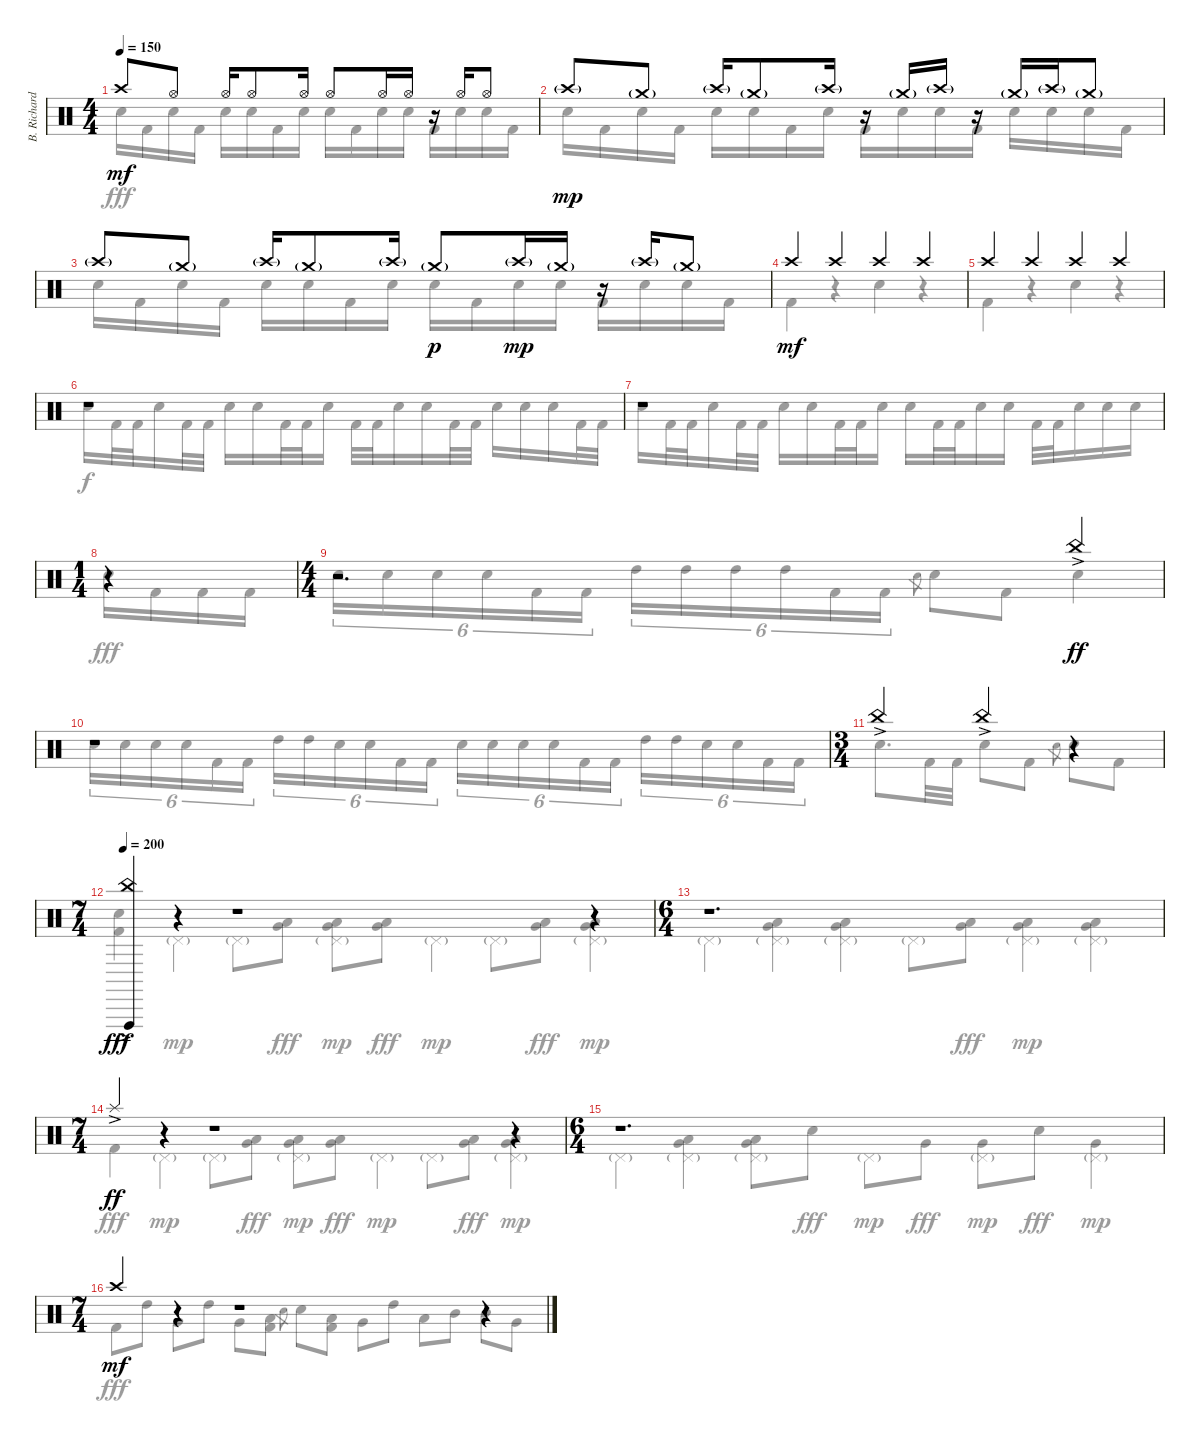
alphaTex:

\track ("B. Richardson Drums" "B. Richard") {instrument percussion}
\staff {score}
\articulation defaults
\voice
\ts (4 4)
\tempo 150
\clef neutral
\ks c "Crash high (hit)".8{dy mf} "Hi-Hat (open)".8 "Hi-Hat (open)".16 "Hi-Hat (open)".8 "Hi-Hat (open)".16 "Hi-Hat (open)".8 "Hi-Hat (open)".16 "Hi-Hat (open)".16
r.16 "Hi-Hat (open)".16 "Hi-Hat (open)".8 |
"Crash high (hit)"{g}.8{dy mp} "Crash medium (hit)"{g}.8 "Crash high (hit)"{g}.16 "Crash medium (hit)"{g}.8 "Crash high (hit)"{g}.16 r.16 "Crash medium (hit)"{g}.16 "Crash high (hit)"{g}.16 r.16 "Crash medium (hit)"{g}.16 "Crash high (hit)"{g}.16 "Crash medium (hit)"{g}.8 |
"Crash high (hit)"{g}.8 "Crash medium (hit)"{g}.8 "Crash high (hit)"{g}.16 "Crash medium (hit)"{g}.8 "Crash high (hit)"{g}.16 "Crash medium (hit)"{g}.8{dy p} "Crash high (hit)"{g}.16{dy mp} "Crash medium (hit)"{g}.16 r.16 "Crash high (hit)"{g}.16 "Crash medium (hit)"{g}.8 |
"Crash high (hit)".4{dy mf} "Crash high (hit)".4 "Crash high (hit)".4 "Crash high (hit)".4 |
"Crash high (hit)".4 "Crash high (hit)".4 "Crash high (hit)".4 "Crash high (hit)".4 |
r.1 |
r.1 |
\ts (1 4)
r.4 |
\ts (4 4)
r.2{d} "China (hit)"{ac}.4{dy ff} |
r.1 |
\ts (3 4)
"China (hit)"{ac}.4 "China (hit)"{ac}.4 r.4 |
\ts (7 4)
\tempo 200
("China (hit)"{ac} "Vibraslap (hit)").4{dy fff} r.4 r.1 r.4 |
\ts (6 4)
r.1{d} |
\ts (7 4)
"Splash (hit)"{ac}.4{dy ff} r.4 r.1 r.4 |
\ts (6 4)
r.1{d} |
\ts (7 4)
"Crash high (hit)".4{dy mf} r.4 r.1 r.4
\voice
\clef neutral
\ottava regular
\simile none
\ks c "Electric Snare (hit)".16{dy fff} "Kick (hit) 2".16 "Electric Snare (hit)".16 "Kick (hit) 2".16 "Electric Snare (hit)".16 "Electric Snare (hit)".16 "Kick (hit) 2".16 "Electric Snare (hit)".16 "Electric Snare (hit)".16 "Kick (hit) 2".16 "Electric Snare (hit)".16 "Electric Snare (hit)".16 "Kick (hit) 2".16 "Electric Snare (hit)".16 "Electric Snare (hit)".16 "Kick (hit) 2".16
|
"Electric Snare (hit)".16 "Kick (hit) 2".16 "Electric Snare (hit)".16 "Kick (hit) 2".16 "Electric Snare (hit)".16 "Electric Snare (hit)".16 "Kick (hit) 2".16 "Electric Snare (hit)".16 "Kick (hit) 2".16 "Electric Snare (hit)".16 "Electric Snare (hit)".16 "Kick (hit) 2".16 "Electric Snare (hit)".16 "Electric Snare (hit)".16 "Electric Snare (hit)".16 "Kick (hit) 2".16 |
"Electric Snare (hit)".16 "Kick (hit) 2".16 "Electric Snare (hit)".16 "Kick (hit) 2".16 "Electric Snare (hit)".16 "Electric Snare (hit)".16 "Kick (hit) 2".16 "Electric Snare (hit)".16 "Electric Snare (hit)".16 "Kick (hit) 2".16 "Electric Snare (hit)".16 "Electric Snare (hit)".16 "Kick (hit) 2".16 "Electric Snare (hit)".16 "Electric Snare (hit)".16 "Kick (hit) 2".16 |
"Kick (hit) 2".4 r.4 "Electric Snare (hit)".4 r.4 |
"Kick (hit) 2".4 r.4 "Electric Snare (hit)".4 r.4 |
"Electric Snare (hit)".16{dy f} "Kick (hit) 2".32 "Kick (hit) 2".32 "Electric Snare (hit)".16 "Kick (hit) 2".32 "Kick (hit) 2".32 "Electric Snare (hit)".16 "Electric Snare (hit)".16 "Kick (hit) 2".32 "Kick (hit) 2".32 "Electric Snare (hit)".16 "Kick (hit) 2".32 "Kick (hit) 2".32 "Electric Snare (hit)".16 "Electric Snare (hit)".16 "Kick (hit) 2".32 "Kick (hit) 2".32 "Electric Snare (hit)".16 "Electric Snare (hit)".16 "Electric Snare (hit)".16 "Kick (hit) 2".32 "Kick (hit) 2".32 |
"Electric Snare (hit)".16 "Kick (hit) 2".32 "Kick (hit) 2".32 "Electric Snare (hit)".16 "Kick (hit) 2".32 "Kick (hit) 2".32 "Electric Snare (hit)".16 "Electric Snare (hit)".16 "Kick (hit) 2".32 "Kick (hit) 2".32 "Electric Snare (hit)".16 "Electric Snare (hit)".16 "Kick (hit) 2".32 "Kick (hit) 2".32 "Electric Snare (hit)".16 "Electric Snare (hit)".16 "Kick (hit) 2".32 "Kick (hit) 2".32 "Electric Snare (hit)".16 "Electric Snare (hit)".16 "Electric Snare (hit)".16 |
"Electric Snare (hit)".16{dy fff} "Kick (hit) 2".16 "Kick (hit) 2".16 "Kick (hit) 2".16 |
"Electric Snare (hit)".16{tu (6 4)} "Electric Snare (hit)".16{tu (6 4)} "Electric Snare (hit)".16{tu (6 4)} "Electric Snare (hit)".16{tu (6 4)} "Kick (hit) 2".16{tu (6 4)} "Kick (hit) 2".16{tu (6 4)} "High Tom (hit)".16{tu (6 4)} "High Tom (hit)".16{tu (6 4)} "High Tom (hit)".16{tu (6 4)} "High Tom (hit)".16{tu (6 4)} "Kick (hit) 2".16{tu (6 4)} "Kick (hit) 2".16{tu (6 4)} "Electric Snare (hit)".8{gr} "Electric Snare (hit)".8 "Kick (hit) 2".8 "Electric Snare (hit)".4 |
"Electric Snare (hit)".16{tu (6 4)} "Electric Snare (hit)".16{tu (6 4)} "Electric Snare (hit)".16{tu (6 4)} "Electric Snare (hit)".16{tu (6 4)} "Kick (hit) 2".16{tu (6 4)} "Kick (hit) 2".16{tu (6 4)} "High Tom (hit)".16{tu (6 4)} "High Tom (hit)".16{tu (6 4)} "Electric Snare (hit)".16{tu (6 4)} "Electric Snare (hit)".16{tu (6 4)} "Kick (hit) 2".16{tu (6 4)} "Kick (hit) 2".16{tu (6 4)} "Electric Snare (hit)".16{tu (6 4)} "Electric Snare (hit)".16{tu (6 4)} "Electric Snare (hit)".16{tu (6 4)} "Electric Snare (hit)".16{tu (6 4)} "Kick (hit) 2".16{tu (6 4)} "Kick (hit) 2".16{tu (6 4)} "High Tom (hit)".16{tu (6 4)} "High Tom (hit)".16{tu (6 4)} "Electric Snare (hit)".16{tu (6 4)} "Electric Snare (hit)".16{tu (6 4)} "Kick (hit) 2".16{tu (6 4)} "Kick (hit) 2".16{tu (6 4)} |
"Electric Snare (hit)".8{d} "Kick (hit) 2".32 "Kick (hit) 2".32 "Electric Snare (hit)".8 "Kick (hit) 2".8 "Electric Snare (hit)".8{gr} "Electric Snare (hit)".8 "Kick (hit) 2".8 |
("Electric Snare (hit)" "Kick (hit) 2").4 "Pedal Hi-Hat (hit)"{g}.4{dy mp} "Pedal Hi-Hat (hit)"{g}.8 ("Low Tom (hit)" "Very Low Tom (hit)").8{dy fff} ("Low Tom (hit)" "Very Low Tom (hit)" "Pedal Hi-Hat (hit)"{g}).8{dy mp} ("Low Tom (hit)" "Very Low Tom (hit)").8{dy fff} "Pedal Hi-Hat (hit)"{g}.4{dy mp} "Pedal Hi-Hat (hit)"{g}.8 ("Low Tom (hit)" "Very Low Tom (hit)").8{dy fff} ("Low Tom (hit)" "Very Low Tom (hit)" "Pedal Hi-Hat (hit)"{g}).4{dy mp} |
"Pedal Hi-Hat (hit)"{g}.4 ("Low Tom (hit)" "Very Low Tom (hit)" "Pedal Hi-Hat (hit)"{g}).4 ("Low Tom (hit)" "Very Low Tom (hit)" "Pedal Hi-Hat (hit)"{g}).4 "Pedal Hi-Hat (hit)"{g}.8 ("Low Tom (hit)" "Very Low Tom (hit)").8{dy fff} ("Low Tom (hit)" "Very Low Tom (hit)" "Pedal Hi-Hat (hit)"{g}).4{dy mp} ("Low Tom (hit)" "Very Low Tom (hit)" "Pedal Hi-Hat (hit)"{g}).4 |
"Kick (hit) 2".4{dy fff} "Pedal Hi-Hat (hit)"{g}.4{dy mp} "Pedal Hi-Hat (hit)"{g}.8 ("Low Tom (hit)" "Very Low Tom (hit)").8{dy fff} ("Low Tom (hit)" "Very Low Tom (hit)" "Pedal Hi-Hat (hit)"{g}).8{dy mp} ("Low Tom (hit)" "Very Low Tom (hit)").8{dy fff} "Pedal Hi-Hat (hit)"{g}.4{dy mp} "Pedal Hi-Hat (hit)"{g}.8 ("Low Tom (hit)" "Very Low Tom (hit)").8{dy fff} ("Low Tom (hit)" "Very Low Tom (hit)" "Pedal Hi-Hat (hit)"{g}).4{dy mp} |
"Pedal Hi-Hat (hit)"{g}.4 ("Low Tom (hit)" "Very Low Tom (hit)" "Pedal Hi-Hat (hit)"{g}).4 ("Low Tom (hit)" "Very Low Tom (hit)" "Pedal Hi-Hat (hit)"{g}).8 "Electric Snare (hit)".8{dy fff} "Pedal Hi-Hat (hit)"{g}.8{dy mp} "Very Low Tom (hit)".8{dy fff} ("Very Low Tom (hit)" "Pedal Hi-Hat (hit)"{g}).8{dy mp} "Electric Snare (hit)".8{dy fff} ("Very Low Tom (hit)" "Pedal Hi-Hat (hit)"{g}).4{dy mp} |
"Kick (hit) 2".8{dy fff} "High Tom (hit)".8 "Very Low Tom (hit)".8 "High Tom (hit)".8 "Very Low Tom (hit)".8 ("Low Tom (hit)" "Kick (hit) 2").8 "Electric Snare (hit)".8{gr} "Electric Snare (hit)".8 ("Low Tom (hit)" "Kick (hit) 2").8 "Very Low Tom (hit)".8 "High Tom (hit)".8 "Low Tom (hit)".8 "Mid Tom (hit)".8 "Mid Tom (hit)".8 "Very Low Tom (hit)".8
